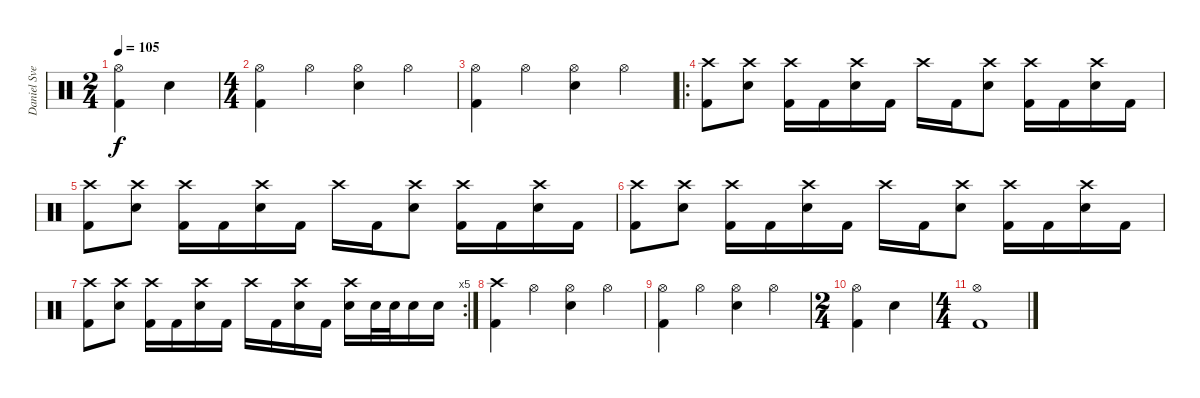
\track ("Daniel Svensson" "Daniel Sve") {instrument percussion}
\staff {score}
\articulation defaults
\ts (2 4)
\tempo 105
\clef neutral
\ks c
("Hi-Hat (open)" "Kick (hit) 2").4{dy f} "Electric Snare (hit)".4 |
\ts (4 4)
("Hi-Hat (open)" "Kick (hit) 2").4 "Hi-Hat (open)".4 ("Electric Snare (hit)" "Hi-Hat (open)").4 "Hi-Hat (open)".4 |
("Hi-Hat (open)" "Kick (hit) 2").4 "Hi-Hat (open)".4 ("Electric Snare (hit)" "Hi-Hat (open)").4 "Hi-Hat (open)".4 |
\ro
("Crash high (hit)" "Kick (hit) 2").8 ("Crash high (hit)" "Electric Snare (hit)").8 ("Crash high (hit)" "Kick (hit) 2").16 "Kick (hit) 2".16 ("Crash high (hit)" "Electric Snare (hit)").16 "Kick (hit) 2".16 "Crash high (hit)".16 "Kick (hit) 2".16 ("Crash high (hit)" "Electric Snare (hit)").8 ("Crash high (hit)" "Kick (hit) 2").16 "Kick (hit) 2".16 ("Crash high (hit)" "Electric Snare (hit)").16 "Kick (hit) 2".16 |
("Crash high (hit)" "Kick (hit) 2").8 ("Crash high (hit)" "Electric Snare (hit)").8 ("Crash high (hit)" "Kick (hit) 2").16 "Kick (hit) 2".16 ("Crash high (hit)" "Electric Snare (hit)").16 "Kick (hit) 2".16 "Crash high (hit)".16 "Kick (hit) 2".16 ("Crash high (hit)" "Electric Snare (hit)").8 ("Crash high (hit)" "Kick (hit) 2").16 "Kick (hit) 2".16 ("Crash high (hit)" "Electric Snare (hit)").16 "Kick (hit) 2".16 |
("Crash high (hit)" "Kick (hit) 2").8 ("Crash high (hit)" "Electric Snare (hit)").8 ("Crash high (hit)" "Kick (hit) 2").16 "Kick (hit) 2".16 ("Crash high (hit)" "Electric Snare (hit)").16 "Kick (hit) 2".16 "Crash high (hit)".16 "Kick (hit) 2".16 ("Crash high (hit)" "Electric Snare (hit)").8 ("Crash high (hit)" "Kick (hit) 2").16 "Kick (hit) 2".16 ("Crash high (hit)" "Electric Snare (hit)").16 "Kick (hit) 2".16 |
\rc 5
("Crash high (hit)" "Kick (hit) 2").8 ("Crash high (hit)" "Electric Snare (hit)").8 ("Crash high (hit)" "Kick (hit) 2").16 "Kick (hit) 2".16 ("Crash high (hit)" "Electric Snare (hit)").16 "Kick (hit) 2".16 "Crash high (hit)".16 "Kick (hit) 2".16 ("Crash high (hit)" "Electric Snare (hit)").16 "Kick (hit) 2".16 ("Crash high (hit)" "Electric Snare (hit)").16 "Electric Snare (hit)".32 "Electric Snare (hit)".32 "Electric Snare (hit)".16 "Electric Snare (hit)".16 |
("Kick (hit) 2" "Crash high (hit)").4 "Hi-Hat (open)".4 ("Electric Snare (hit)" "Hi-Hat (open)").4 "Hi-Hat (open)".4 |
("Hi-Hat (open)" "Kick (hit) 2").4 "Hi-Hat (open)".4 ("Electric Snare (hit)" "Hi-Hat (open)").4 "Hi-Hat (open)".4 |
\ts (2 4)
("Hi-Hat (open)" "Kick (hit) 2").4 "Electric Snare (hit)".4 |
\ts (4 4)
("Hi-Hat (open)" "Kick (hit) 2").1
